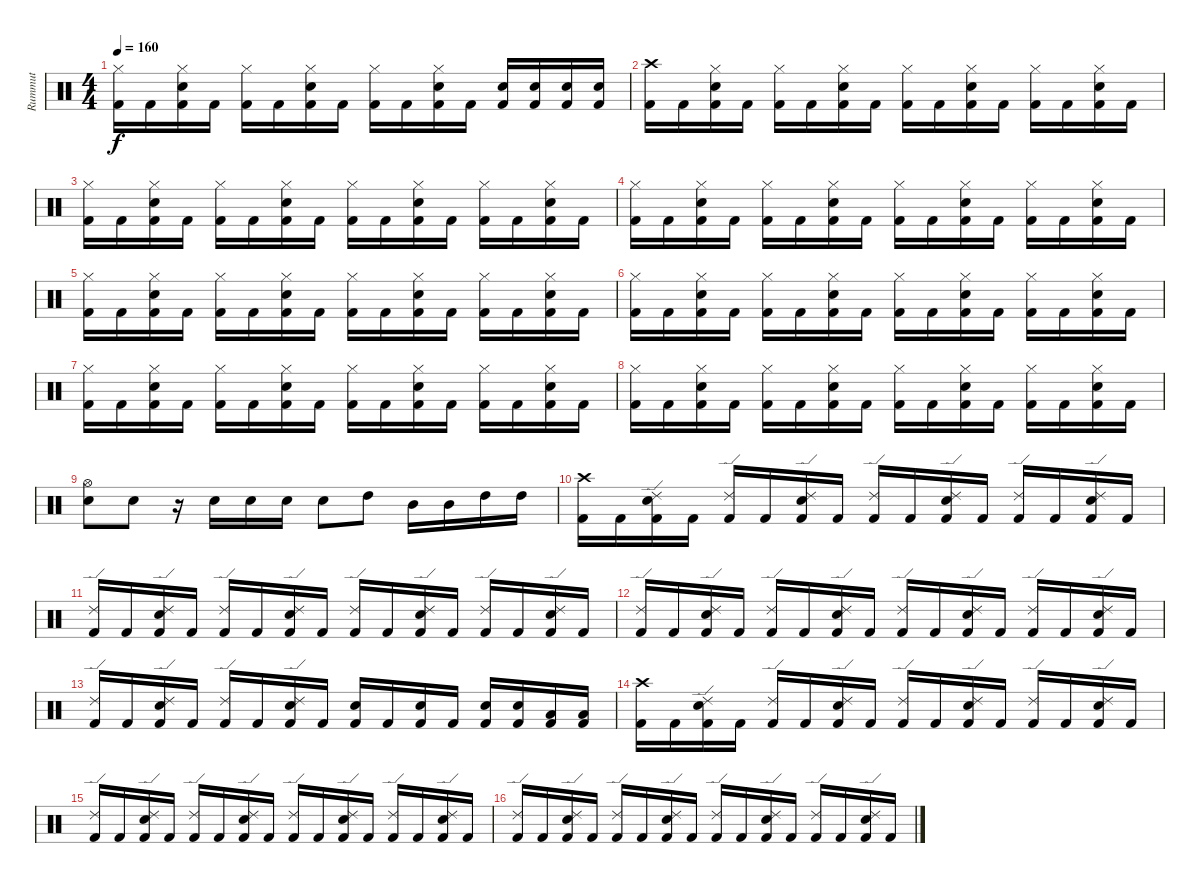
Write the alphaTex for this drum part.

\track ("Rummut" "Rummut") {instrument percussion}
\staff {score}
\articulation defaults
\ts (4 4)
\tempo 160
\clef neutral
\ks c
("Hi-Hat (closed)" "Kick (hit) 2").16{dy f} "Kick (hit) 2".16 ("Hi-Hat (closed)" "Snare (hit) 2" "Kick (hit) 2").16 "Kick (hit) 2".16 ("Hi-Hat (closed)" "Kick (hit) 2").16 "Kick (hit) 2".16 ("Hi-Hat (closed)" "Snare (hit) 2" "Kick (hit) 2").16 "Kick (hit) 2".16 ("Hi-Hat (closed)" "Kick (hit) 2").16 "Kick (hit) 2".16 ("Hi-Hat (closed)" "Snare (hit) 2" "Kick (hit) 2").16 "Kick (hit) 2".16 ("Snare (hit) 2" "Kick (hit) 2").16 ("Snare (hit) 2" "Kick (hit) 2").16 ("Snare (hit) 2" "Kick (hit) 2").16 ("Snare (hit) 2" "Kick (hit) 2").16 |
("Crash high (hit)" "Kick (hit) 2").16 "Kick (hit) 2".16 ("Hi-Hat (closed)" "Snare (hit) 2" "Kick (hit) 2").16 "Kick (hit) 2".16 ("Hi-Hat (closed)" "Kick (hit) 2").16 "Kick (hit) 2".16 ("Hi-Hat (closed)" "Snare (hit) 2" "Kick (hit) 2").16 "Kick (hit) 2".16 ("Hi-Hat (closed)" "Kick (hit) 2").16 "Kick (hit) 2".16 ("Hi-Hat (closed)" "Snare (hit) 2" "Kick (hit) 2").16 "Kick (hit) 2".16 ("Hi-Hat (closed)" "Kick (hit) 2").16 "Kick (hit) 2".16 ("Hi-Hat (closed)" "Snare (hit) 2" "Kick (hit) 2").16 "Kick (hit) 2".16 |
("Hi-Hat (closed)" "Kick (hit) 2").16 "Kick (hit) 2".16 ("Hi-Hat (closed)" "Snare (hit) 2" "Kick (hit) 2").16 "Kick (hit) 2".16 ("Hi-Hat (closed)" "Kick (hit) 2").16 "Kick (hit) 2".16 ("Hi-Hat (closed)" "Snare (hit) 2" "Kick (hit) 2").16 "Kick (hit) 2".16 ("Hi-Hat (closed)" "Kick (hit) 2").16 "Kick (hit) 2".16 ("Hi-Hat (closed)" "Snare (hit) 2" "Kick (hit) 2").16 "Kick (hit) 2".16 ("Hi-Hat (closed)" "Kick (hit) 2").16 "Kick (hit) 2".16 ("Hi-Hat (closed)" "Snare (hit) 2" "Kick (hit) 2").16 "Kick (hit) 2".16 |
("Hi-Hat (closed)" "Kick (hit) 2").16 "Kick (hit) 2".16 ("Hi-Hat (closed)" "Snare (hit) 2" "Kick (hit) 2").16 "Kick (hit) 2".16 ("Hi-Hat (closed)" "Kick (hit) 2").16 "Kick (hit) 2".16 ("Hi-Hat (closed)" "Snare (hit) 2" "Kick (hit) 2").16 "Kick (hit) 2".16 ("Hi-Hat (closed)" "Kick (hit) 2").16 "Kick (hit) 2".16 ("Hi-Hat (closed)" "Snare (hit) 2" "Kick (hit) 2").16 "Kick (hit) 2".16 ("Hi-Hat (closed)" "Kick (hit) 2").16 "Kick (hit) 2".16 ("Hi-Hat (closed)" "Snare (hit) 2" "Kick (hit) 2").16 "Kick (hit) 2".16 |
("Hi-Hat (closed)" "Kick (hit) 2").16 "Kick (hit) 2".16 ("Hi-Hat (closed)" "Snare (hit) 2" "Kick (hit) 2").16 "Kick (hit) 2".16 ("Hi-Hat (closed)" "Kick (hit) 2").16 "Kick (hit) 2".16 ("Hi-Hat (closed)" "Snare (hit) 2" "Kick (hit) 2").16 "Kick (hit) 2".16 ("Hi-Hat (closed)" "Kick (hit) 2").16 "Kick (hit) 2".16 ("Hi-Hat (closed)" "Snare (hit) 2" "Kick (hit) 2").16 "Kick (hit) 2".16 ("Hi-Hat (closed)" "Kick (hit) 2").16 "Kick (hit) 2".16 ("Hi-Hat (closed)" "Snare (hit) 2" "Kick (hit) 2").16 "Kick (hit) 2".16 |
("Hi-Hat (closed)" "Kick (hit) 2").16 "Kick (hit) 2".16 ("Hi-Hat (closed)" "Snare (hit) 2" "Kick (hit) 2").16 "Kick (hit) 2".16 ("Hi-Hat (closed)" "Kick (hit) 2").16 "Kick (hit) 2".16 ("Hi-Hat (closed)" "Snare (hit) 2" "Kick (hit) 2").16 "Kick (hit) 2".16 ("Hi-Hat (closed)" "Kick (hit) 2").16 "Kick (hit) 2".16 ("Hi-Hat (closed)" "Snare (hit) 2" "Kick (hit) 2").16 "Kick (hit) 2".16 ("Hi-Hat (closed)" "Kick (hit) 2").16 "Kick (hit) 2".16 ("Hi-Hat (closed)" "Snare (hit) 2" "Kick (hit) 2").16 "Kick (hit) 2".16 |
("Hi-Hat (closed)" "Kick (hit) 2").16 "Kick (hit) 2".16 ("Hi-Hat (closed)" "Snare (hit) 2" "Kick (hit) 2").16 "Kick (hit) 2".16 ("Hi-Hat (closed)" "Kick (hit) 2").16 "Kick (hit) 2".16 ("Hi-Hat (closed)" "Snare (hit) 2" "Kick (hit) 2").16 "Kick (hit) 2".16 ("Hi-Hat (closed)" "Kick (hit) 2").16 "Kick (hit) 2".16 ("Hi-Hat (closed)" "Snare (hit) 2" "Kick (hit) 2").16 "Kick (hit) 2".16 ("Hi-Hat (closed)" "Kick (hit) 2").16 "Kick (hit) 2".16 ("Hi-Hat (closed)" "Snare (hit) 2" "Kick (hit) 2").16 "Kick (hit) 2".16 |
("Hi-Hat (closed)" "Kick (hit) 2").16 "Kick (hit) 2".16 ("Hi-Hat (closed)" "Snare (hit) 2" "Kick (hit) 2").16 "Kick (hit) 2".16 ("Hi-Hat (closed)" "Kick (hit) 2").16 "Kick (hit) 2".16 ("Hi-Hat (closed)" "Snare (hit) 2" "Kick (hit) 2").16 "Kick (hit) 2".16 ("Hi-Hat (closed)" "Kick (hit) 2").16 "Kick (hit) 2".16 ("Hi-Hat (closed)" "Snare (hit) 2" "Kick (hit) 2").16 "Kick (hit) 2".16 ("Hi-Hat (closed)" "Kick (hit) 2").16 "Kick (hit) 2".16 ("Hi-Hat (closed)" "Snare (hit) 2" "Kick (hit) 2").16 "Kick (hit) 2".16 |
("Snare (hit) 2" "Hi-Hat (open)").8 "Snare (hit) 2".8 r.16 "Snare (hit) 2".16 "Snare (hit) 2".16 "Snare (hit) 2".16 "Snare (hit) 2".8 "High Tom (hit)".8 "Mid Tom (hit)".16 "Mid Tom (hit)".16 "High Tom (hit)".16 "High Tom (hit)".16 |
("Crash high (hit)" "Kick (hit) 2").16 "Kick (hit) 2".16 ("Ride (edge) 2" "Snare (hit) 2" "Kick (hit) 2").16 "Kick (hit) 2".16 ("Ride (edge) 2" "Kick (hit) 2").16 "Kick (hit) 2".16 ("Ride (edge) 2" "Snare (hit) 2" "Kick (hit) 2").16 "Kick (hit) 2".16 ("Ride (edge) 2" "Kick (hit) 2").16 "Kick (hit) 2".16 ("Ride (edge) 2" "Snare (hit) 2" "Kick (hit) 2").16 "Kick (hit) 2".16 ("Ride (edge) 2" "Kick (hit) 2").16 "Kick (hit) 2".16 ("Ride (edge) 2" "Snare (hit) 2" "Kick (hit) 2").16 "Kick (hit) 2".16 |
("Ride (edge) 2" "Kick (hit) 2").16 "Kick (hit) 2".16 ("Ride (edge) 2" "Snare (hit) 2" "Kick (hit) 2").16 "Kick (hit) 2".16 ("Ride (edge) 2" "Kick (hit) 2").16 "Kick (hit) 2".16 ("Ride (edge) 2" "Snare (hit) 2" "Kick (hit) 2").16 "Kick (hit) 2".16 ("Ride (edge) 2" "Kick (hit) 2").16 "Kick (hit) 2".16 ("Ride (edge) 2" "Snare (hit) 2" "Kick (hit) 2").16 "Kick (hit) 2".16 ("Ride (edge) 2" "Kick (hit) 2").16 "Kick (hit) 2".16 ("Ride (edge) 2" "Snare (hit) 2" "Kick (hit) 2").16 "Kick (hit) 2".16 |
("Ride (edge) 2" "Kick (hit) 2").16 "Kick (hit) 2".16 ("Ride (edge) 2" "Snare (hit) 2" "Kick (hit) 2").16 "Kick (hit) 2".16 ("Ride (edge) 2" "Kick (hit) 2").16 "Kick (hit) 2".16 ("Ride (edge) 2" "Snare (hit) 2" "Kick (hit) 2").16 "Kick (hit) 2".16 ("Ride (edge) 2" "Kick (hit) 2").16 "Kick (hit) 2".16 ("Ride (edge) 2" "Snare (hit) 2" "Kick (hit) 2").16 "Kick (hit) 2".16 ("Ride (edge) 2" "Kick (hit) 2").16 "Kick (hit) 2".16 ("Ride (edge) 2" "Snare (hit) 2" "Kick (hit) 2").16 "Kick (hit) 2".16 |
("Ride (edge) 2" "Kick (hit) 2").16 "Kick (hit) 2".16 ("Ride (edge) 2" "Snare (hit) 2" "Kick (hit) 2").16 "Kick (hit) 2".16 ("Ride (edge) 2" "Kick (hit) 2").16 "Kick (hit) 2".16 ("Ride (edge) 2" "Snare (hit) 2" "Kick (hit) 2").16 "Kick (hit) 2".16 ("Snare (hit) 2" "Kick (hit) 2").16 "Kick (hit) 2".16 ("Snare (hit) 2" "Kick (hit) 2").16 "Kick (hit) 2".16 ("Snare (hit) 2" "Kick (hit) 2").16 ("Snare (hit) 2" "Kick (hit) 2").16 ("Low Tom (hit)" "Kick (hit) 2").16 ("Low Tom (hit)" "Kick (hit) 2").16 |
("Crash high (hit)" "Kick (hit) 2").16 "Kick (hit) 2".16 ("Ride (edge) 2" "Snare (hit) 2" "Kick (hit) 2").16 "Kick (hit) 2".16 ("Ride (edge) 2" "Kick (hit) 2").16 "Kick (hit) 2".16 ("Ride (edge) 2" "Snare (hit) 2" "Kick (hit) 2").16 "Kick (hit) 2".16 ("Ride (edge) 2" "Kick (hit) 2").16 "Kick (hit) 2".16 ("Ride (edge) 2" "Snare (hit) 2" "Kick (hit) 2").16 "Kick (hit) 2".16 ("Ride (edge) 2" "Kick (hit) 2").16 "Kick (hit) 2".16 ("Ride (edge) 2" "Snare (hit) 2" "Kick (hit) 2").16 "Kick (hit) 2".16 |
("Ride (edge) 2" "Kick (hit) 2").16 "Kick (hit) 2".16 ("Ride (edge) 2" "Snare (hit) 2" "Kick (hit) 2").16 "Kick (hit) 2".16 ("Ride (edge) 2" "Kick (hit) 2").16 "Kick (hit) 2".16 ("Ride (edge) 2" "Snare (hit) 2" "Kick (hit) 2").16 "Kick (hit) 2".16 ("Ride (edge) 2" "Kick (hit) 2").16 "Kick (hit) 2".16 ("Ride (edge) 2" "Snare (hit) 2" "Kick (hit) 2").16 "Kick (hit) 2".16 ("Ride (edge) 2" "Kick (hit) 2").16 "Kick (hit) 2".16 ("Ride (edge) 2" "Snare (hit) 2" "Kick (hit) 2").16 "Kick (hit) 2".16 |
("Ride (edge) 2" "Kick (hit) 2").16 "Kick (hit) 2".16 ("Ride (edge) 2" "Snare (hit) 2" "Kick (hit) 2").16 "Kick (hit) 2".16 ("Ride (edge) 2" "Kick (hit) 2").16 "Kick (hit) 2".16 ("Ride (edge) 2" "Snare (hit) 2" "Kick (hit) 2").16 "Kick (hit) 2".16 ("Ride (edge) 2" "Kick (hit) 2").16 "Kick (hit) 2".16 ("Ride (edge) 2" "Snare (hit) 2" "Kick (hit) 2").16 "Kick (hit) 2".16 ("Ride (edge) 2" "Kick (hit) 2").16 "Kick (hit) 2".16 ("Ride (edge) 2" "Snare (hit) 2" "Kick (hit) 2").16 "Kick (hit) 2".16
